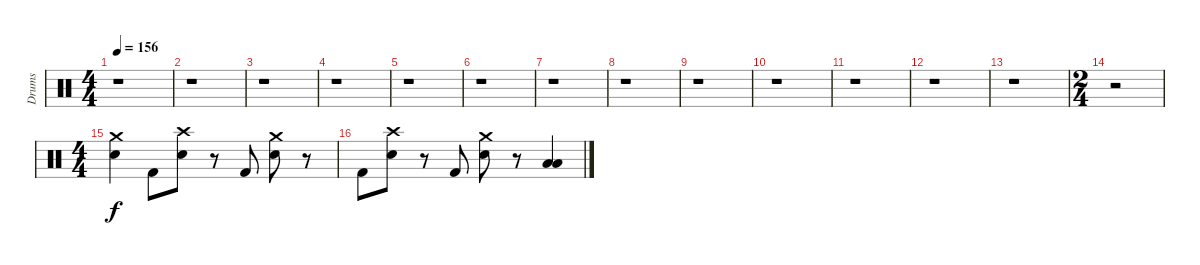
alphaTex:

\track ("Drums" "Drums") {instrument percussion}
\staff {score}
\articulation defaults
\ts (4 4)
\tempo 156
\clef neutral
\ks c
r.1{dy f} |
r.1 |
r.1 |
r.1 |
r.1 |
r.1 |
r.1 |
r.1 |
r.1 |
r.1 |
r.1 |
r.1 |
r.1 |
\ts (2 4)
r.2 |
\ts (4 4)
("Crash medium (hit)" "Snare (hit) 2").4 "Kick (hit) 2".8 ("Crash high (hit)" "Snare (hit) 2").8 r.8 "Kick (hit) 2".8 ("Crash medium (hit)" "Snare (hit) 2").8 r.8 |
"Kick (hit) 2".8 ("Crash high (hit)" "Snare (hit) 2").8 r.8 "Kick (hit) 2".8 ("Crash medium (hit)" "Snare (hit) 2").8 r.8 ("Low Tom (hit)" "Low Tom (hit)").4
